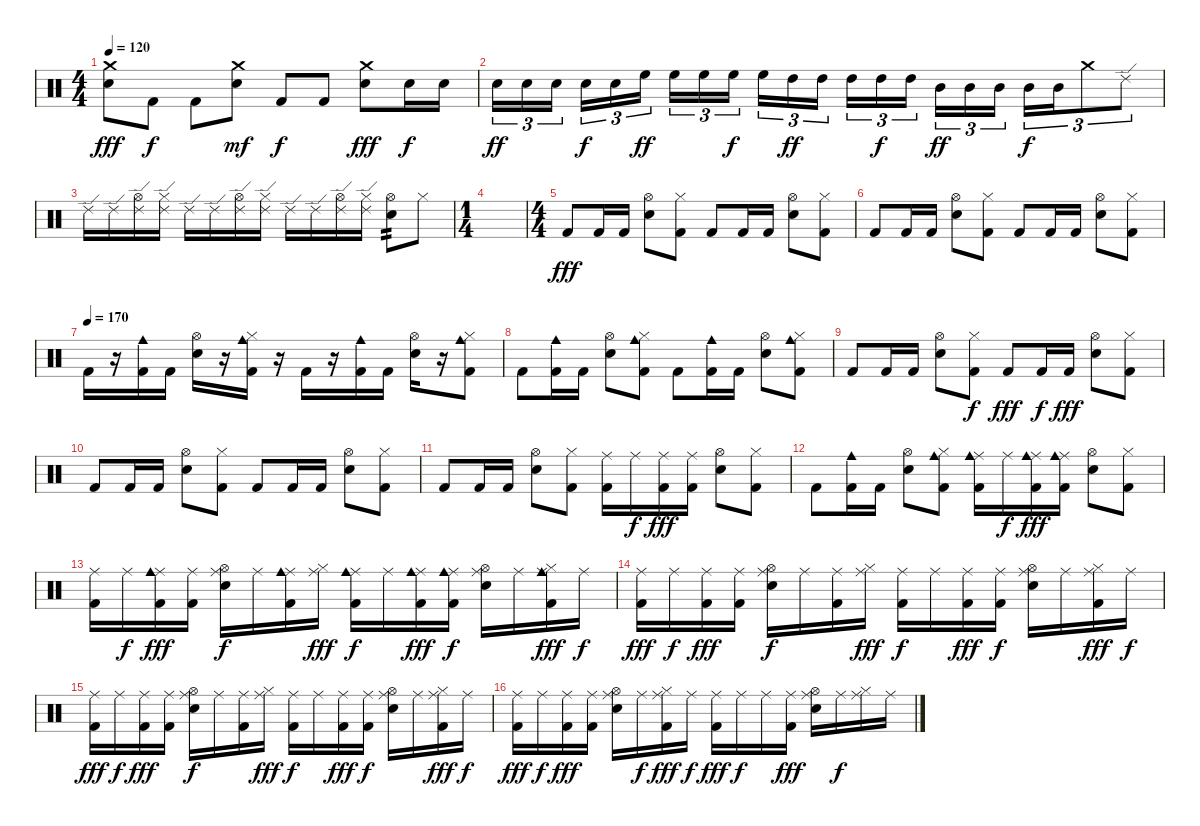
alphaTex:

\track "" {instrument percussion}
\staff {score}
\articulation defaults
\ts (4 4)
\tempo 120
\clef neutral
\ks c
("Snare (hit) 2" "Crash medium (hit)").8{dy fff} "Kick (hit) 2".8{dy f} "Kick (hit) 2".8 ("Snare (hit) 2" "Crash medium (hit)").8{dy mf} "Kick (hit) 2".8{dy f} "Kick (hit) 2".8 ("Snare (hit) 2" "Crash medium (hit)").8{dy fff} "Snare (hit) 2".16{dy f} "Snare (hit) 2".16 |
"Snare (hit) 2".16{tu (3 2) dy ff} "Snare (hit) 2".16{tu (3 2)} "Snare (hit) 2".16{tu (3 2)} "Snare (hit) 2".16{tu (3 2) dy f} "Snare (hit) 2".16{tu (3 2)} "High Floor Tom (hit)".16{tu (3 2) dy ff} "High Floor Tom (hit)".16{tu (3 2)} "High Floor Tom (hit)".16{tu (3 2)} "High Floor Tom (hit)".16{tu (3 2) dy f} "High Floor Tom (hit)".16{tu (3 2)} "High Tom (hit)".16{tu (3 2) dy ff} "High Tom (hit)".16{tu (3 2)} "High Tom (hit)".16{tu (3 2)} "High Tom (hit)".16{tu (3 2) dy f} "High Tom (hit)".16{tu (3 2)} "Mid Tom (hit)".16{tu (3 2) dy ff} "Mid Tom (hit)".16{tu (3 2)} "Mid Tom (hit)".16{tu (3 2)} "Mid Tom (hit)".16{tu (3 2) dy f} "Mid Tom (hit)".16{tu (3 2)} "Crash medium (hit)".8{tu (3 2)} "Ride (edge) 2".8{tu (3 2)} |
"Ride (edge) 2".16 "Ride (edge) 2".16 ("Ride (edge) 2" "Hi-Hat (open)").16 ("Ride (edge) 2" "Hi-Hat (closed)").16 "Ride (edge) 2".16 "Ride (edge) 2".16 ("Ride (edge) 2" "Hi-Hat (open)").16 ("Ride (edge) 2" "Hi-Hat (closed)").16 "Ride (edge) 2".16 "Ride (edge) 2".16 ("Ride (edge) 2" "Hi-Hat (open)").16 ("Ride (edge) 2" "Hi-Hat (closed)").16 ("Hi-Hat (open)" "Snare (hit) 2").8{tp 2} "Hi-Hat (closed)".8 |
\ts (1 4)
|
\ts (4 4)
"Kick (hit) 2".8{dy fff} "Kick (hit) 2".16 "Kick (hit) 2".16 ("Hi-Hat (open)" "Electric Snare (hit)").8 ("Hi-Hat (closed)" "Kick (hit) 2").8 "Kick (hit) 2".8 "Kick (hit) 2".16 "Kick (hit) 2".16 ("Hi-Hat (open)" "Electric Snare (hit)").8 ("Hi-Hat (closed)" "Kick (hit) 2").8 |
"Kick (hit) 2".8 "Kick (hit) 2".16 "Kick (hit) 2".16 ("Hi-Hat (open)" "Electric Snare (hit)").8 ("Hi-Hat (closed)" "Kick (hit) 2").8 "Kick (hit) 2".8 "Kick (hit) 2".16 "Kick (hit) 2".16 ("Hi-Hat (open)" "Electric Snare (hit)").8 ("Hi-Hat (closed)" "Kick (hit) 2").8 |
\tempo (170)
"Kick (hit) 2".16 r.16 ("Kick (hit) 2" "Cowbell medium (hit)").16 "Kick (hit) 2".16 ("Hi-Hat (open)" "Electric Snare (hit)").16 r.16 ("Hi-Hat (closed)" "Kick (hit) 2" "Cowbell medium (hit)").16 r.16 "Kick (hit) 2".16 r.16 ("Kick (hit) 2" "Cowbell medium (hit)").16 "Kick (hit) 2".16 ("Hi-Hat (open)" "Electric Snare (hit)").16 r.16 ("Hi-Hat (closed)" "Kick (hit) 2" "Cowbell medium (hit)").8 |
"Kick (hit) 2".8 ("Kick (hit) 2" "Cowbell medium (hit)").16 "Kick (hit) 2".16 ("Hi-Hat (open)" "Electric Snare (hit)").8 ("Hi-Hat (closed)" "Kick (hit) 2" "Cowbell medium (hit)").8 "Kick (hit) 2".8 ("Kick (hit) 2" "Cowbell medium (hit)").16 "Kick (hit) 2".16 ("Hi-Hat (open)" "Electric Snare (hit)").8 ("Hi-Hat (closed)" "Kick (hit) 2" "Cowbell medium (hit)").8 |
"Kick (hit) 2".8 "Kick (hit) 2".16 "Kick (hit) 2".16 ("Hi-Hat (open)" "Electric Snare (hit)").8 ("Hi-Hat (closed)" "Kick (hit) 2").8{dy f} "Kick (hit) 2".8{dy fff} "Kick (hit) 2".16{dy f} "Kick (hit) 2".16{dy fff} ("Hi-Hat (open)" "Electric Snare (hit)").8 ("Hi-Hat (closed)" "Kick (hit) 2").8 |
"Kick (hit) 2".8 "Kick (hit) 2".16 "Kick (hit) 2".16 ("Hi-Hat (open)" "Electric Snare (hit)").8 ("Hi-Hat (closed)" "Kick (hit) 2").8 "Kick (hit) 2".8 "Kick (hit) 2".16 "Kick (hit) 2".16 ("Hi-Hat (open)" "Electric Snare (hit)").8 ("Hi-Hat (closed)" "Kick (hit) 2").8 |
"Kick (hit) 2".8 "Kick (hit) 2".16 "Kick (hit) 2".16 ("Hi-Hat (open)" "Electric Snare (hit)").8 ("Hi-Hat (closed)" "Kick (hit) 2").8 ("Ride (middle)" "Kick (hit) 2").16 "Ride (middle)".16{dy f} ("Ride (middle)" "Kick (hit) 2").16{dy fff} ("Ride (middle)" "Kick (hit) 2").16 ("Hi-Hat (open)" "Electric Snare (hit)").8 ("Hi-Hat (closed)" "Kick (hit) 2").8 |
"Kick (hit) 2".8 ("Kick (hit) 2" "Cowbell medium (hit)").16 "Kick (hit) 2".16 ("Hi-Hat (open)" "Electric Snare (hit)").8 ("Hi-Hat (closed)" "Kick (hit) 2" "Cowbell medium (hit)").8 ("Ride (middle)" "Kick (hit) 2" "Cowbell medium (hit)").16 "Ride (middle)".16{dy f} ("Ride (middle)" "Kick (hit) 2" "Cowbell medium (hit)").16{dy fff} ("Ride (middle)" "Kick (hit) 2" "Cowbell medium (hit)").16 ("Hi-Hat (open)" "Electric Snare (hit)").8 ("Hi-Hat (closed)" "Kick (hit) 2").8 |
("Ride (middle)" "Kick (hit) 2").16 "Ride (middle)".16{dy f} ("Ride (middle)" "Kick (hit) 2" "Cowbell medium (hit)").16{dy fff} ("Ride (middle)" "Kick (hit) 2").16 ("Hi-Hat (open)" "Ride (middle)" "Electric Snare (hit)").16{dy f} "Ride (middle)".16 ("Ride (middle)" "Kick (hit) 2" "Cowbell medium (hit)").16 ("Hi-Hat (closed)" "Ride (middle)").16{dy fff} ("Ride (middle)" "Kick (hit) 2" "Cowbell medium (hit)").16{dy f} "Ride (middle)".16 ("Ride (middle)" "Kick (hit) 2" "Cowbell medium (hit)").16{dy fff} ("Ride (middle)" "Kick (hit) 2" "Cowbell medium (hit)").16{dy f} ("Hi-Hat (open)" "Ride (middle)" "Electric Snare (hit)").16 "Ride (middle)".16 ("Hi-Hat (closed)" "Ride (middle)" "Kick (hit) 2" "Cowbell medium (hit)").16{dy fff} "Ride (middle)".16{dy f} |
("Ride (middle)" "Kick (hit) 2").16{dy fff} "Ride (middle)".16{dy f} ("Ride (middle)" "Kick (hit) 2").16{dy fff} ("Ride (middle)" "Kick (hit) 2").16 ("Hi-Hat (open)" "Ride (middle)" "Electric Snare (hit)").16{dy f} "Ride (middle)".16 ("Ride (middle)" "Kick (hit) 2").16 ("Hi-Hat (closed)" "Ride (middle)").16{dy fff} ("Ride (middle)" "Kick (hit) 2").16{dy f} "Ride (middle)".16 ("Ride (middle)" "Kick (hit) 2").16{dy fff} ("Ride (middle)" "Kick (hit) 2").16{dy f} ("Hi-Hat (open)" "Ride (middle)" "Electric Snare (hit)").16 "Ride (middle)".16 ("Hi-Hat (closed)" "Ride (middle)" "Kick (hit) 2").16{dy fff} "Ride (middle)".16{dy f} |
("Ride (middle)" "Kick (hit) 2").16{dy fff} "Ride (middle)".16{dy f} ("Ride (middle)" "Kick (hit) 2").16{dy fff} ("Ride (middle)" "Kick (hit) 2").16 ("Hi-Hat (open)" "Ride (middle)" "Electric Snare (hit)").16{dy f} "Ride (middle)".16 ("Ride (middle)" "Kick (hit) 2").16 ("Hi-Hat (closed)" "Ride (middle)").16{dy fff} ("Ride (middle)" "Kick (hit) 2").16{dy f} "Ride (middle)".16 ("Ride (middle)" "Kick (hit) 2").16{dy fff} ("Ride (middle)" "Kick (hit) 2").16{dy f} ("Hi-Hat (open)" "Ride (middle)" "Electric Snare (hit)").16 "Ride (middle)".16 ("Hi-Hat (closed)" "Ride (middle)" "Kick (hit) 2").16{dy fff} "Ride (middle)".16{dy f} |
("Kick (hit) 2" "Ride (middle)").16{dy fff} "Ride (middle)".16{dy f} ("Kick (hit) 2" "Ride (middle)").16{dy fff} ("Kick (hit) 2" "Ride (middle)").16 ("Electric Snare (hit)" "Hi-Hat (open)" "Ride (middle)").16 "Ride (middle)".16{dy f} ("Kick (hit) 2" "Hi-Hat (closed)" "Ride (middle)").16{dy fff} "Ride (middle)".16{dy f} ("Kick (hit) 2" "Ride (middle)").16{dy fff} "Ride (middle)".16{dy f} "Ride (middle)".16 ("Kick (hit) 2" "Ride (middle)").16{dy fff} ("Electric Snare (hit)" "Hi-Hat (open)" "Ride (middle)").16 "Ride (middle)".16{dy f} ("Hi-Hat (closed)" "Ride (middle)").16 "Ride (middle)".16
